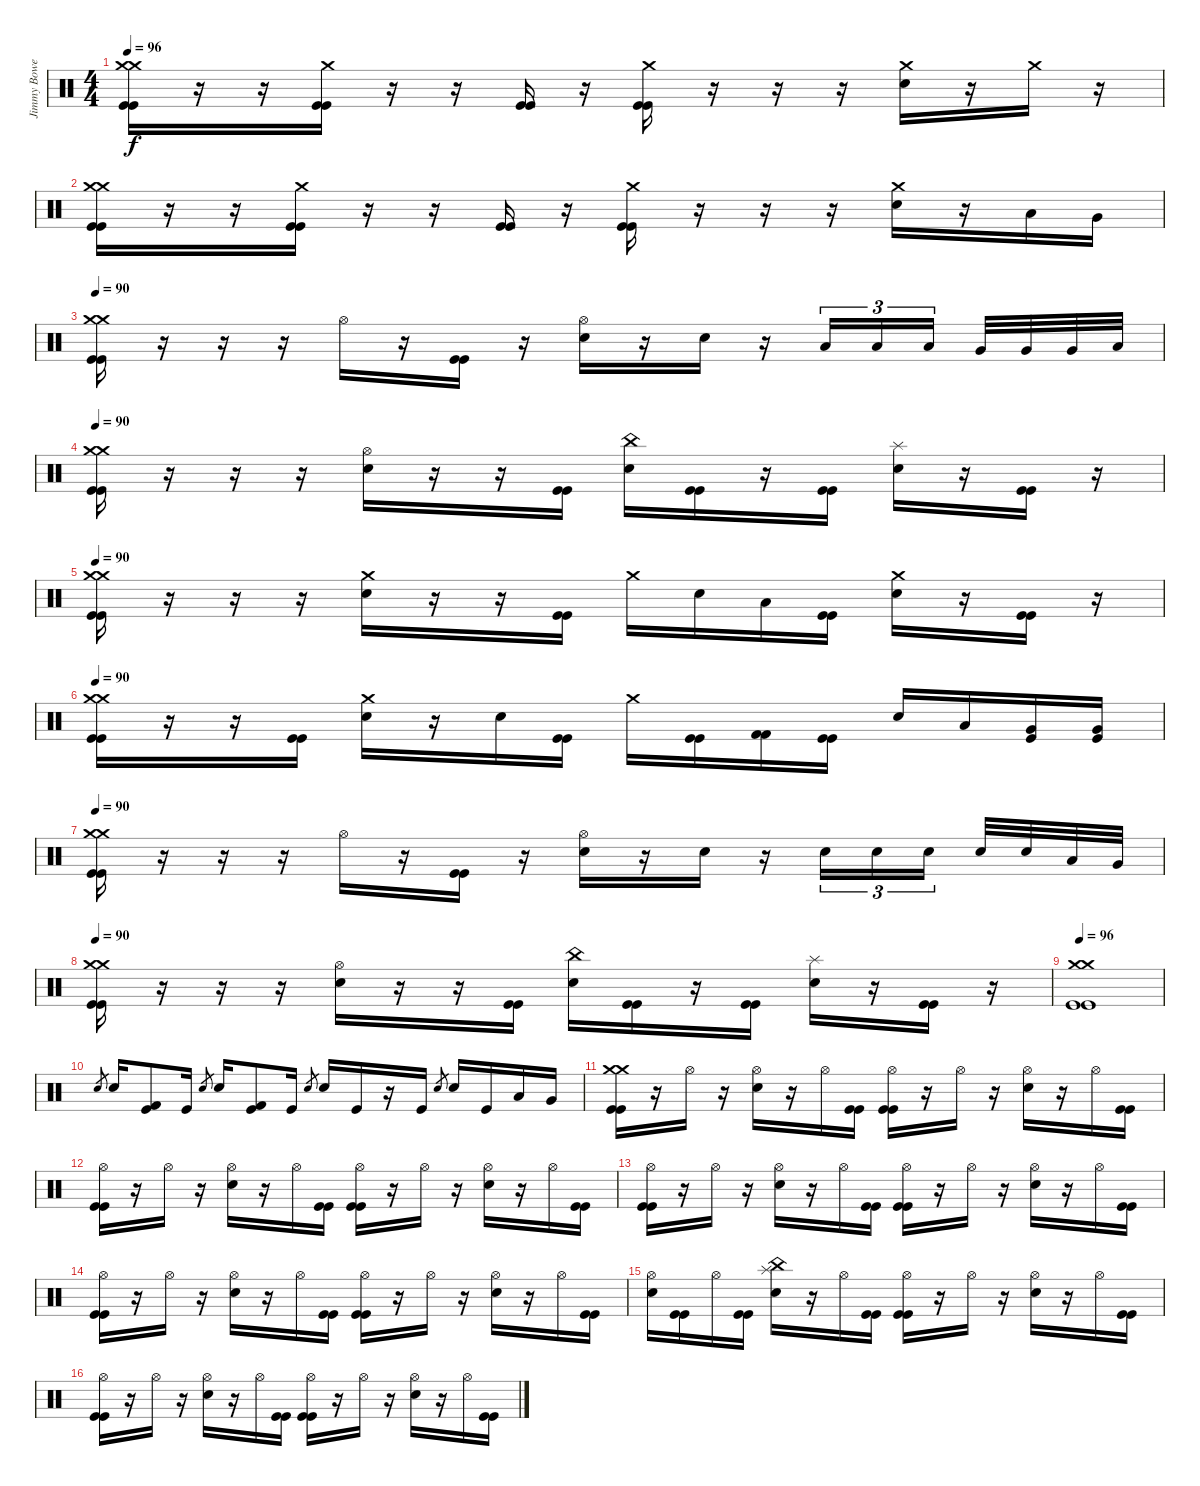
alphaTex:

\track ("Jimmy Bower" "Jimmy Bowe") {instrument percussion}
\staff {score}
\articulation defaults
\ts (4 4)
\tempo 96
\clef neutral
\ks c
("Crash medium (hit)" "Crash medium (hit)" "Kick (hit)" "Kick (hit)").16{dy f} r.16 r.16 ("Crash medium (hit)" "Kick (hit)" "Kick (hit)").16 r.16 r.16 ("Kick (hit)" "Kick (hit)").16 r.16 ("Crash medium (hit)" "Kick (hit)" "Kick (hit)").16 r.16 r.16 r.16 ("Crash medium (hit)" "Snare (hit) 2").16 r.16 "Crash medium (hit)".16 r.16 |
("Crash medium (hit)" "Crash medium (hit)" "Kick (hit)" "Kick (hit)").16 r.16 r.16 ("Crash medium (hit)" "Kick (hit)" "Kick (hit)").16 r.16 r.16 ("Kick (hit)" "Kick (hit)").16 r.16 ("Crash medium (hit)" "Kick (hit)" "Kick (hit)").16 r.16 r.16 r.16 ("Crash medium (hit)" "Snare (hit) 2").16 r.16 "Low Tom (hit)".16 "Very Low Tom (hit)".16 |
\tempo 90
("Crash medium (hit)" "Crash medium (hit)" "Kick (hit)" "Kick (hit)").16 r.16 r.16 r.16 "Hi-Hat (open)".16 r.16 ("Kick (hit)" "Kick (hit)").16 r.16 ("Hi-Hat (open)" "Snare (hit) 2").16 r.16 "Snare (hit) 2".16 r.16 "Low Tom (hit)".16{tu (3 2)} "Low Tom (hit)".16{tu (3 2)} "Low Tom (hit)".16{tu (3 2)} "Very Low Tom (hit)".32 "Very Low Tom (hit)".32 "Very Low Tom (hit)".32 "Low Floor Tom (hit)".32 |
\tempo 90
("Crash medium (hit)" "Crash medium (hit)" "Kick (hit)" "Kick (hit)").16 r.16 r.16 r.16 ("Hi-Hat (open)" "Snare (hit) 2").16 r.16 r.16 ("Kick (hit)" "Kick (hit)").16 ("China (hit)" "Snare (hit) 2").16 ("Kick (hit)" "Kick (hit)").16 r.16 ("Kick (hit)" "Kick (hit)").16 ("Splash (hit)" "Snare (hit) 2").16 r.16 ("Kick (hit)" "Kick (hit)").16 r.16 |
\tempo 90
("Crash medium (hit)" "Crash medium (hit)" "Kick (hit)" "Kick (hit)").16 r.16 r.16 r.16 ("Crash medium (hit)" "Snare (hit) 2").16 r.16 r.16 ("Kick (hit)" "Kick (hit)").16 "Crash medium (hit)".16 "Snare (hit) 2".16 "Low Tom (hit)".16 ("Kick (hit)" "Kick (hit)").16 ("Crash medium (hit)" "Snare (hit) 2").16 r.16 ("Kick (hit)" "Kick (hit)").16 r.16 |
\tempo 90
("Crash medium (hit)" "Crash medium (hit)" "Kick (hit)" "Kick (hit)").16 r.16 r.16 ("Kick (hit)" "Kick (hit)").16 ("Crash medium (hit)" "Snare (hit) 2").16 r.16 "Snare (hit) 2".16 ("Kick (hit)" "Kick (hit)").16 "Crash medium (hit)".16 ("Kick (hit)" "Kick (hit)").16 ("Kick (hit) 2" "Kick (hit) 2").16 ("Kick (hit)" "Kick (hit)").16 "Snare (hit) 2".16 "Low Tom (hit)".16 ("Very Low Tom (hit)" "Kick (hit)").16 ("Very Low Tom (hit)" "Kick (hit)").16 |
\tempo 90
("Crash medium (hit)" "Crash medium (hit)" "Kick (hit)" "Kick (hit)").16 r.16 r.16 r.16 "Hi-Hat (open)".16 r.16 ("Kick (hit)" "Kick (hit)").16 r.16 ("Hi-Hat (open)" "Snare (hit) 2").16 r.16 "Snare (hit) 2".16 r.16 "Snare (hit) 2".16{tu (3 2)} "Snare (hit) 2".16{tu (3 2)} "Snare (hit) 2".16{tu (3 2)} "Snare (hit) 2".32 "Snare (hit) 2".32 "Low Tom (hit)".32 "Very Low Tom (hit)".32 |
\tempo 90
("Crash medium (hit)" "Crash medium (hit)" "Kick (hit)" "Kick (hit)").16 r.16 r.16 r.16 ("Hi-Hat (open)" "Snare (hit) 2").16 r.16 r.16 ("Kick (hit)" "Kick (hit)").16 ("China (hit)" "Snare (hit) 2").16 ("Kick (hit)" "Kick (hit)").16 r.16 ("Kick (hit)" "Kick (hit)").16 ("Splash (hit)" "Snare (hit) 2").16 r.16 ("Kick (hit)" "Kick (hit)").16 r.16 |
\tempo 96
("Crash medium (hit)" "Crash medium (hit)" "Kick (hit)" "Kick (hit)").1 |
"Snare (hit) 2".8{gr} "Snare (hit) 2".16 ("Kick (hit) 2" "Kick (hit)").8 "Kick (hit)".16 "Snare (hit) 2".8{gr} "Snare (hit) 2".16 ("Kick (hit) 2" "Kick (hit)").8 "Kick (hit)".16 "Snare (hit) 2".8{gr} "Snare (hit) 2".16 "Kick (hit)".16 r.16 "Kick (hit)".16 "Snare (hit) 2".8{gr} "Snare (hit) 2".16 "Kick (hit)".16 "Low Tom (hit)".16 "Very Low Tom (hit)".16 |
("Crash medium (hit)" "Crash medium (hit)" "Kick (hit)" "Kick (hit)").16 r.16 "Hi-Hat (open)".16 r.16 ("Hi-Hat (open)" "Snare (hit) 2").16 r.16 "Hi-Hat (open)".16 ("Kick (hit)" "Kick (hit)").16 ("Hi-Hat (open)" "Kick (hit)" "Kick (hit)").16 r.16 "Hi-Hat (open)".16 r.16 ("Hi-Hat (open)" "Snare (hit) 2").16 r.16 "Hi-Hat (open)".16 ("Kick (hit)" "Kick (hit)").16 |
("Hi-Hat (open)" "Kick (hit)" "Kick (hit)").16 r.16 "Hi-Hat (open)".16 r.16 ("Hi-Hat (open)" "Snare (hit) 2").16 r.16 "Hi-Hat (open)".16 ("Kick (hit)" "Kick (hit)").16 ("Hi-Hat (open)" "Kick (hit)" "Kick (hit)").16 r.16 "Hi-Hat (open)".16 r.16 ("Hi-Hat (open)" "Snare (hit) 2").16 r.16 "Hi-Hat (open)".16 ("Kick (hit)" "Kick (hit)").16 |
("Hi-Hat (open)" "Kick (hit)" "Kick (hit)").16 r.16 "Hi-Hat (open)".16 r.16 ("Hi-Hat (open)" "Snare (hit) 2").16 r.16 "Hi-Hat (open)".16 ("Kick (hit)" "Kick (hit)").16 ("Hi-Hat (open)" "Kick (hit)" "Kick (hit)").16 r.16 "Hi-Hat (open)".16 r.16 ("Hi-Hat (open)" "Snare (hit) 2").16 r.16 "Hi-Hat (open)".16 ("Kick (hit)" "Kick (hit)").16 |
("Hi-Hat (open)" "Kick (hit)" "Kick (hit)").16 r.16 "Hi-Hat (open)".16 r.16 ("Hi-Hat (open)" "Snare (hit) 2").16 r.16 "Hi-Hat (open)".16 ("Kick (hit)" "Kick (hit)").16 ("Hi-Hat (open)" "Kick (hit)" "Kick (hit)").16 r.16 "Hi-Hat (open)".16 r.16 ("Hi-Hat (open)" "Snare (hit) 2").16 r.16 "Hi-Hat (open)".16 ("Kick (hit)" "Kick (hit)").16 |
("Hi-Hat (open)" "Snare (hit) 2").16 ("Kick (hit)" "Kick (hit)").16 "Hi-Hat (open)".16 ("Kick (hit)" "Kick (hit)").16 ("Splash (hit)" "China (hit)" "Snare (hit) 2").16 r.16 "Hi-Hat (open)".16 ("Kick (hit)" "Kick (hit)").16 ("Hi-Hat (open)" "Kick (hit)" "Kick (hit)").16 r.16 "Hi-Hat (open)".16 r.16 ("Hi-Hat (open)" "Snare (hit) 2").16 r.16 "Hi-Hat (open)".16 ("Kick (hit)" "Kick (hit)").16 |
("Hi-Hat (open)" "Kick (hit)" "Kick (hit)").16 r.16 "Hi-Hat (open)".16 r.16 ("Hi-Hat (open)" "Snare (hit) 2").16 r.16 "Hi-Hat (open)".16 ("Kick (hit)" "Kick (hit)").16 ("Hi-Hat (open)" "Kick (hit)" "Kick (hit)").16 r.16 "Hi-Hat (open)".16 r.16 ("Hi-Hat (open)" "Snare (hit) 2").16 r.16 "Hi-Hat (open)".16 ("Kick (hit)" "Kick (hit)").16
